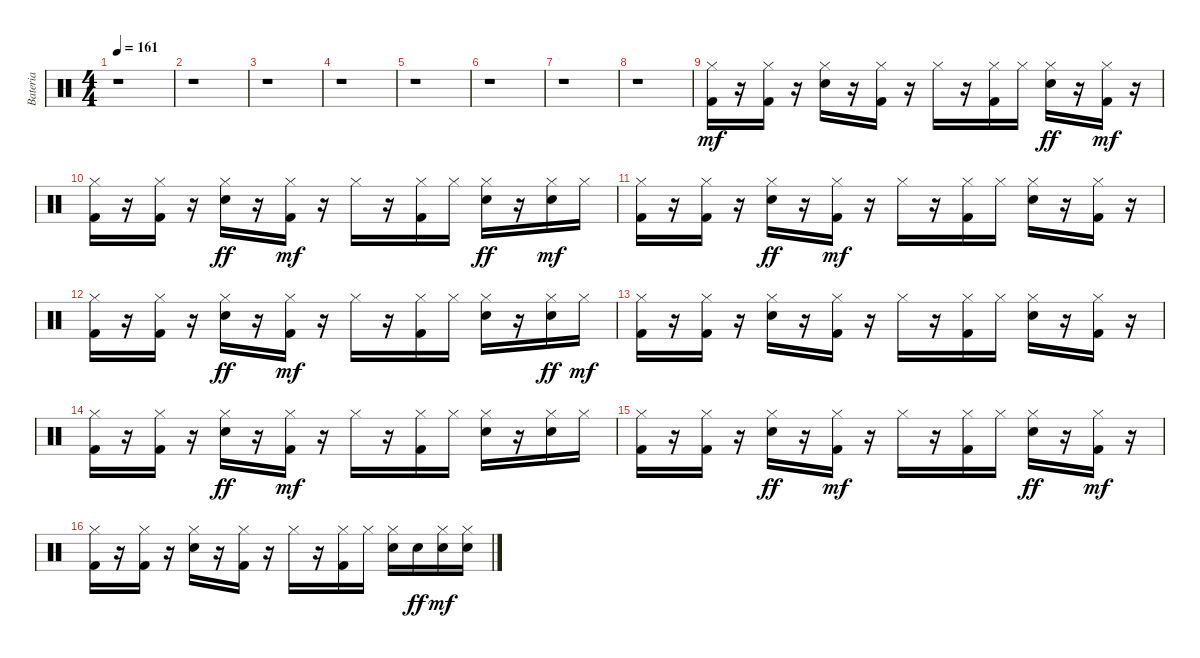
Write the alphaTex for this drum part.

\track ("Bateria" "Bateria") {instrument percussion}
\staff {score}
\articulation defaults
\ts (4 4)
\tempo 161
\clef neutral
\ks c
r.1{dy mf} |
r.1 |
r.1 |
r.1 |
r.1 |
r.1 |
r.1 |
r.1 |
("Hi-Hat (closed)" "Kick (hit) 2").16 r.16 ("Kick (hit) 2" "Hi-Hat (closed)").16 r.16 ("Electric Snare (hit)" "Hi-Hat (closed)").16 r.16 ("Hi-Hat (closed)" "Kick (hit) 2").16 r.16 "Hi-Hat (closed)".16 r.16 ("Hi-Hat (closed)" "Kick (hit) 2").16 "Hi-Hat (closed)".16 ("Hi-Hat (closed)" "Electric Snare (hit)").16{dy ff} r.16 ("Kick (hit) 2" "Hi-Hat (closed)").16{dy mf} r.16 |
("Kick (hit) 2" "Hi-Hat (closed)").16 r.16 ("Kick (hit) 2" "Hi-Hat (closed)").16 r.16 ("Hi-Hat (closed)" "Electric Snare (hit)").16{dy ff} r.16 ("Hi-Hat (closed)" "Kick (hit) 2").16{dy mf} r.16 "Hi-Hat (closed)".16 r.16 ("Kick (hit) 2" "Hi-Hat (closed)").16 "Hi-Hat (closed)".16 ("Hi-Hat (closed)" "Electric Snare (hit)").16{dy ff} r.16 ("Electric Snare (hit)" "Hi-Hat (closed)").16{dy mf} "Hi-Hat (closed)".16 |
("Kick (hit) 2" "Hi-Hat (closed)").16 r.16 ("Kick (hit) 2" "Hi-Hat (closed)").16 r.16 ("Hi-Hat (closed)" "Electric Snare (hit)").16{dy ff} r.16 ("Hi-Hat (closed)" "Kick (hit) 2").16{dy mf} r.16 "Hi-Hat (closed)".16 r.16 ("Hi-Hat (closed)" "Kick (hit) 2").16 "Hi-Hat (closed)".16 ("Electric Snare (hit)" "Hi-Hat (closed)").16 r.16 ("Hi-Hat (closed)" "Kick (hit) 2").16 r.16 |
("Kick (hit) 2" "Hi-Hat (closed)").16 r.16 ("Hi-Hat (closed)" "Kick (hit) 2").16 r.16 ("Hi-Hat (closed)" "Electric Snare (hit)").16{dy ff} r.16 ("Kick (hit) 2" "Hi-Hat (closed)").16{dy mf} r.16 "Hi-Hat (closed)".16 r.16 ("Hi-Hat (closed)" "Kick (hit) 2").16 "Hi-Hat (closed)".16 ("Electric Snare (hit)" "Hi-Hat (closed)").16 r.16 ("Hi-Hat (closed)" "Electric Snare (hit)").16{dy ff} "Hi-Hat (closed)".16{dy mf} |
("Hi-Hat (closed)" "Kick (hit) 2").16 r.16 ("Hi-Hat (closed)" "Kick (hit) 2").16 r.16 ("Electric Snare (hit)" "Hi-Hat (closed)").16 r.16 ("Kick (hit) 2" "Hi-Hat (closed)").16 r.16 "Hi-Hat (closed)".16 r.16 ("Hi-Hat (closed)" "Kick (hit) 2").16 "Hi-Hat (closed)".16 ("Electric Snare (hit)" "Hi-Hat (closed)").16 r.16 ("Kick (hit) 2" "Hi-Hat (closed)").16 r.16 |
("Kick (hit) 2" "Hi-Hat (closed)").16 r.16 ("Hi-Hat (closed)" "Kick (hit) 2").16 r.16 ("Hi-Hat (closed)" "Electric Snare (hit)").16{dy ff} r.16 ("Hi-Hat (closed)" "Kick (hit) 2").16{dy mf} r.16 "Hi-Hat (closed)".16 r.16 ("Hi-Hat (closed)" "Kick (hit) 2").16 "Hi-Hat (closed)".16 ("Electric Snare (hit)" "Hi-Hat (closed)").16 r.16 ("Electric Snare (hit)" "Hi-Hat (closed)").16 "Hi-Hat (closed)".16 |
("Hi-Hat (closed)" "Kick (hit) 2").16 r.16 ("Hi-Hat (closed)" "Kick (hit) 2").16 r.16 ("Hi-Hat (closed)" "Electric Snare (hit)").16{dy ff} r.16 ("Kick (hit) 2" "Hi-Hat (closed)").16{dy mf} r.16 "Hi-Hat (closed)".16 r.16 ("Hi-Hat (closed)" "Kick (hit) 2").16 "Hi-Hat (closed)".16 ("Hi-Hat (closed)" "Electric Snare (hit)").16{dy ff} r.16 ("Kick (hit) 2" "Hi-Hat (closed)").16{dy mf} r.16 |
("Hi-Hat (closed)" "Kick (hit) 2").16 r.16 ("Kick (hit) 2" "Hi-Hat (closed)").16 r.16 ("Electric Snare (hit)" "Hi-Hat (closed)").16 r.16 ("Kick (hit) 2" "Hi-Hat (closed)").16 r.16 "Hi-Hat (closed)".16 r.16 ("Hi-Hat (closed)" "Kick (hit) 2").16 "Hi-Hat (closed)".16 ("Electric Snare (hit)" "Hi-Hat (closed)").16 "Electric Snare (hit)".16{dy ff} ("Electric Snare (hit)" "Hi-Hat (closed)").16{dy mf} ("Electric Snare (hit)" "Hi-Hat (closed)").16
